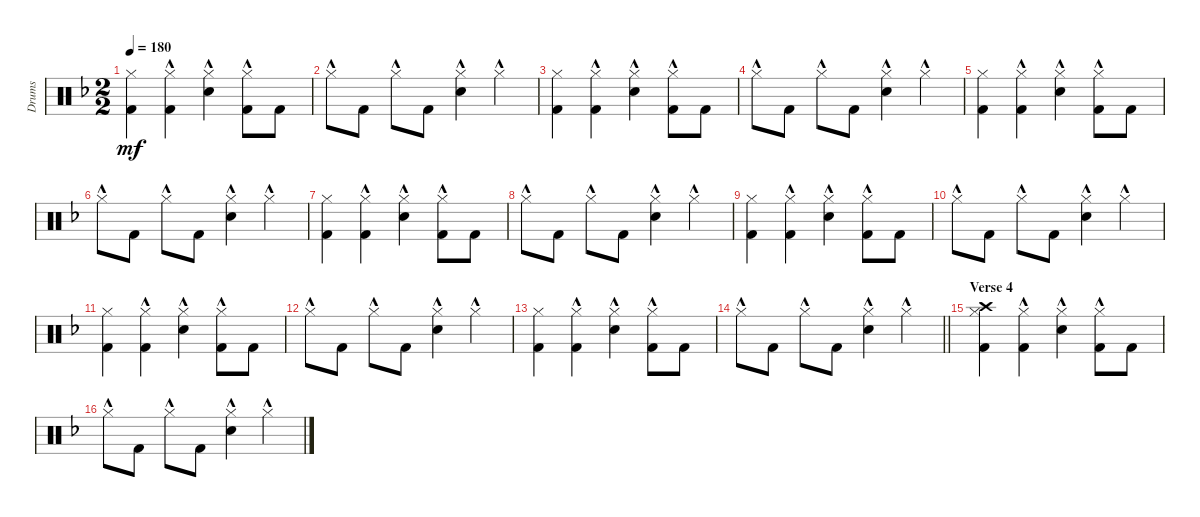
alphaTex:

\track ("Drums" "Drums") {instrument percussion}
\staff {score}
\articulation defaults
\ts (2 2)
\tempo 180
\clef neutral
\ks dminor
("Hi-Hat (closed)" "Kick (hit) 2").4{dy mf} ("Hi-Hat (closed)"{hac} "Kick (hit) 2").4 ("Hi-Hat (closed)"{hac} "Snare (hit) 2").4 ("Hi-Hat (closed)"{hac} "Kick (hit) 2").8 "Kick (hit) 2".8 |
"Hi-Hat (closed)"{hac}.8 "Kick (hit) 2".8 "Hi-Hat (closed)"{hac}.8 "Kick (hit) 2".8 ("Hi-Hat (closed)"{hac} "Snare (hit) 2").4 "Hi-Hat (closed)"{hac}.4 |
("Hi-Hat (closed)" "Kick (hit) 2").4 ("Hi-Hat (closed)"{hac} "Kick (hit) 2").4 ("Hi-Hat (closed)"{hac} "Snare (hit) 2").4 ("Hi-Hat (closed)"{hac} "Kick (hit) 2").8 "Kick (hit) 2".8 |
"Hi-Hat (closed)"{hac}.8 "Kick (hit) 2".8 "Hi-Hat (closed)"{hac}.8 "Kick (hit) 2".8 ("Hi-Hat (closed)"{hac} "Snare (hit) 2").4 "Hi-Hat (closed)"{hac}.4 |
("Hi-Hat (closed)" "Kick (hit) 2").4 ("Hi-Hat (closed)"{hac} "Kick (hit) 2").4 ("Hi-Hat (closed)"{hac} "Snare (hit) 2").4 ("Hi-Hat (closed)"{hac} "Kick (hit) 2").8 "Kick (hit) 2".8 |
"Hi-Hat (closed)"{hac}.8 "Kick (hit) 2".8 "Hi-Hat (closed)"{hac}.8 "Kick (hit) 2".8 ("Hi-Hat (closed)"{hac} "Snare (hit) 2").4 "Hi-Hat (closed)"{hac}.4 |
("Hi-Hat (closed)" "Kick (hit) 2").4 ("Hi-Hat (closed)"{hac} "Kick (hit) 2").4 ("Hi-Hat (closed)"{hac} "Snare (hit) 2").4 ("Hi-Hat (closed)"{hac} "Kick (hit) 2").8 "Kick (hit) 2".8 |
"Hi-Hat (closed)"{hac}.8 "Kick (hit) 2".8 "Hi-Hat (closed)"{hac}.8 "Kick (hit) 2".8 ("Hi-Hat (closed)"{hac} "Snare (hit) 2").4 "Hi-Hat (closed)"{hac}.4 |
("Hi-Hat (closed)" "Kick (hit) 2").4 ("Hi-Hat (closed)"{hac} "Kick (hit) 2").4 ("Hi-Hat (closed)"{hac} "Snare (hit) 2").4 ("Hi-Hat (closed)"{hac} "Kick (hit) 2").8 "Kick (hit) 2".8 |
"Hi-Hat (closed)"{hac}.8 "Kick (hit) 2".8 "Hi-Hat (closed)"{hac}.8 "Kick (hit) 2".8 ("Hi-Hat (closed)"{hac} "Snare (hit) 2").4 "Hi-Hat (closed)"{hac}.4 |
("Hi-Hat (closed)" "Kick (hit) 2").4 ("Hi-Hat (closed)"{hac} "Kick (hit) 2").4 ("Hi-Hat (closed)"{hac} "Snare (hit) 2").4 ("Hi-Hat (closed)"{hac} "Kick (hit) 2").8 "Kick (hit) 2".8 |
"Hi-Hat (closed)"{hac}.8 "Kick (hit) 2".8 "Hi-Hat (closed)"{hac}.8 "Kick (hit) 2".8 ("Hi-Hat (closed)"{hac} "Snare (hit) 2").4 "Hi-Hat (closed)"{hac}.4 |
("Hi-Hat (closed)" "Kick (hit) 2").4 ("Hi-Hat (closed)"{hac} "Kick (hit) 2").4 ("Hi-Hat (closed)"{hac} "Snare (hit) 2").4 ("Hi-Hat (closed)"{hac} "Kick (hit) 2").8 "Kick (hit) 2".8 |
\barLineRight lightlight "Hi-Hat (closed)"{hac}.8 "Kick (hit) 2".8 "Hi-Hat (closed)"{hac}.8 "Kick (hit) 2".8
("Hi-Hat (closed)"{hac} "Snare (hit) 2").4 "Hi-Hat (closed)"{hac}.4 |
\section ("" "Verse 4")
("Hi-Hat (closed)" "Kick (hit) 2" "Crash high (hit)").4 ("Hi-Hat (closed)"{hac} "Kick (hit) 2").4 ("Hi-Hat (closed)"{hac} "Snare (hit) 2").4 ("Hi-Hat (closed)"{hac} "Kick (hit) 2").8 "Kick (hit) 2".8 |
"Hi-Hat (closed)"{hac}.8 "Kick (hit) 2".8 "Hi-Hat (closed)"{hac}.8 "Kick (hit) 2".8 ("Hi-Hat (closed)"{hac} "Snare (hit) 2").4 "Hi-Hat (closed)"{hac}.4
